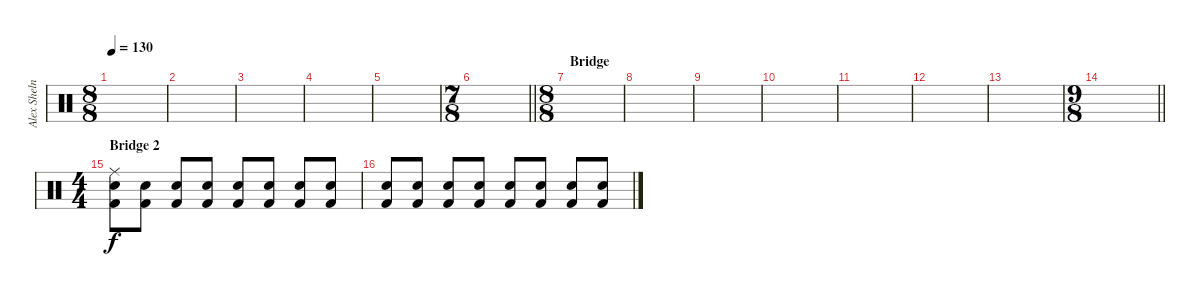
\track ("Alex Shelnutt" "Alex Sheln") {instrument percussion}
\staff {score}
\articulation defaults
\ts (8 8)
\tempo 130
\clef neutral
\ks c
|
|
|
|
|
\ts (7 8)
\barLineRight lightlight
|
\ts (8 8)
\section ("" "Bridge")
|
|
|
|
|
|
|
\ts (9 8)
\barLineRight lightlight
|
\ts (4 4)
\section ("" "Bridge 2")
("Ride (middle)" "Electric Snare (hit)" "Kick (hit) 2").8 ("Electric Snare (hit)" "Kick (hit) 2").8 ("Electric Snare (hit)" "Kick (hit) 2").8 ("Electric Snare (hit)" "Kick (hit) 2").8 ("Electric Snare (hit)" "Kick (hit) 2").8 ("Electric Snare (hit)" "Kick (hit) 2").8 ("Electric Snare (hit)" "Kick (hit) 2").8 ("Electric Snare (hit)" "Kick (hit) 2").8 |
("Electric Snare (hit)" "Kick (hit) 2").8 ("Electric Snare (hit)" "Kick (hit) 2").8 ("Electric Snare (hit)" "Kick (hit) 2").8 ("Electric Snare (hit)" "Kick (hit) 2").8 ("Electric Snare (hit)" "Kick (hit) 2").8 ("Electric Snare (hit)" "Kick (hit) 2").8 ("Electric Snare (hit)" "Kick (hit) 2").8 ("Electric Snare (hit)" "Kick (hit) 2").8
